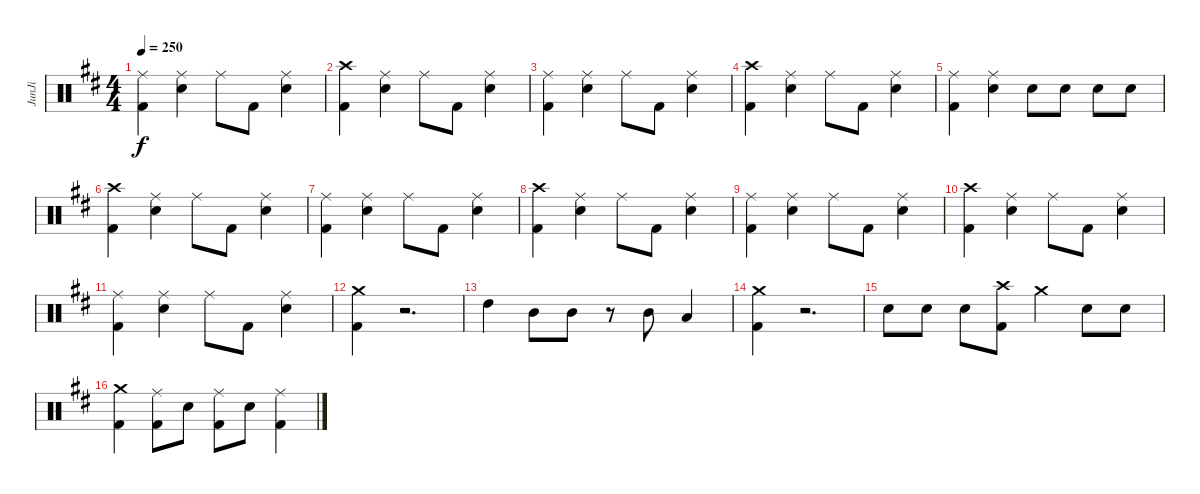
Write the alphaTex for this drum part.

\track ("JunJi" "JunJi") {instrument percussion}
\staff {score}
\articulation defaults
\ts (4 4)
\tempo 250
\clef neutral
\ks d
("Ride (middle)" "Kick (hit) 2").4{dy f} ("Ride (middle)" "Snare (hit) 2").4 "Ride (middle)".8 "Kick (hit) 2".8 ("Ride (middle)" "Snare (hit) 2").4 |
("Crash high (hit)" "Kick (hit) 2").4 ("Ride (middle)" "Snare (hit) 2").4 "Ride (middle)".8 "Kick (hit) 2".8 ("Ride (middle)" "Snare (hit) 2").4 |
("Ride (middle)" "Kick (hit) 2").4 ("Ride (middle)" "Snare (hit) 2").4 "Ride (middle)".8 "Kick (hit) 2".8 ("Ride (middle)" "Snare (hit) 2").4 |
("Crash high (hit)" "Kick (hit) 2").4 ("Ride (middle)" "Snare (hit) 2").4 "Ride (middle)".8 "Kick (hit) 2".8 ("Ride (middle)" "Snare (hit) 2").4 |
("Ride (middle)" "Kick (hit) 2").4 ("Ride (middle)" "Snare (hit) 2").4 "Snare (hit) 2".8 "Snare (hit) 2".8 "Snare (hit) 2".8 "Snare (hit) 2".8 |
("Crash high (hit)" "Kick (hit) 2").4 ("Ride (middle)" "Snare (hit) 2").4 "Ride (middle)".8 "Kick (hit) 2".8 ("Ride (middle)" "Snare (hit) 2").4 |
("Ride (middle)" "Kick (hit) 2").4 ("Ride (middle)" "Snare (hit) 2").4 "Ride (middle)".8 "Kick (hit) 2".8 ("Ride (middle)" "Snare (hit) 2").4 |
("Crash high (hit)" "Kick (hit) 2").4 ("Ride (middle)" "Snare (hit) 2").4 "Ride (middle)".8 "Kick (hit) 2".8 ("Ride (middle)" "Snare (hit) 2").4 |
("Ride (middle)" "Kick (hit) 2").4 ("Ride (middle)" "Snare (hit) 2").4 "Ride (middle)".8 "Kick (hit) 2".8 ("Ride (middle)" "Snare (hit) 2").4 |
("Crash high (hit)" "Kick (hit) 2").4 ("Ride (middle)" "Snare (hit) 2").4 "Ride (middle)".8 "Kick (hit) 2".8 ("Ride (middle)" "Snare (hit) 2").4 |
("Ride (middle)" "Kick (hit) 2").4 ("Ride (middle)" "Snare (hit) 2").4 "Ride (middle)".8 "Kick (hit) 2".8 ("Ride (middle)" "Snare (hit) 2").4 |
("Crash medium (hit)" "Kick (hit) 2").4 r.2{d} |
"High Tom (hit)".4 "Mid Tom (hit)".8 "Mid Tom (hit)".8 r.8 "Mid Tom (hit)".8 "Low Tom (hit)".4 |
("Crash medium (hit)" "Kick (hit) 2").4 r.2{d} |
"Snare (hit) 2".8 "Snare (hit) 2".8 "Snare (hit) 2".8 ("Crash high (hit)" "Kick (hit) 2").8 "Crash medium (hit)".4 "Snare (hit) 2".8 "Snare (hit) 2".8 |
("Crash medium (hit)" "Kick (hit) 2").4 ("Ride (middle)" "Kick (hit) 2").8 "Snare (hit) 2".8 ("Ride (middle)" "Kick (hit) 2").8 "Snare (hit) 2".8 ("Ride (middle)" "Kick (hit) 2").4
